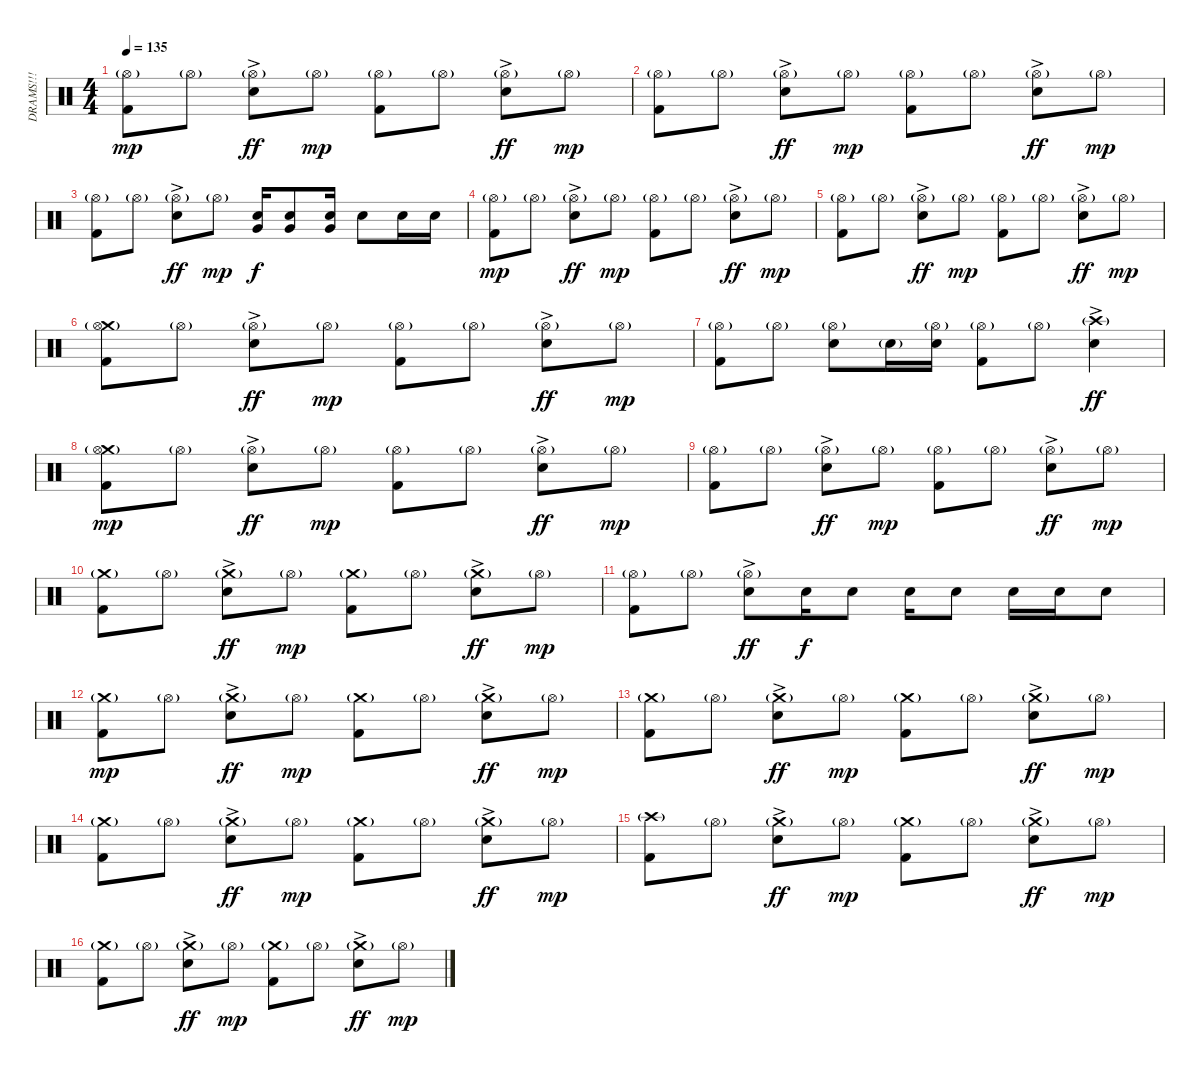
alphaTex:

\track ("DRAMS!!!" "DRAMS!!!") {instrument percussion}
\staff {score}
\articulation defaults
\ts (4 4)
\tempo 135
\clef neutral
\ks c
("Hi-Hat (open)"{g} "Kick (hit) 2").8{dy mp} "Hi-Hat (open)"{g}.8 ("Hi-Hat (open)"{g} "Snare (hit) 2"{ac}).8{dy ff} "Hi-Hat (open)"{g}.8{dy mp} ("Hi-Hat (open)"{g} "Kick (hit) 2").8 "Hi-Hat (open)"{g}.8 ("Hi-Hat (open)"{g} "Snare (hit) 2"{ac}).8{dy ff} "Hi-Hat (open)"{g}.8{dy mp} |
("Hi-Hat (open)"{g} "Kick (hit) 2").8 "Hi-Hat (open)"{g}.8 ("Hi-Hat (open)"{g} "Snare (hit) 2"{ac}).8{dy ff} "Hi-Hat (open)"{g}.8{dy mp} ("Hi-Hat (open)"{g} "Kick (hit) 2").8 "Hi-Hat (open)"{g}.8 ("Hi-Hat (open)"{g} "Snare (hit) 2"{ac}).8{dy ff} "Hi-Hat (open)"{g}.8{dy mp} |
("Hi-Hat (open)"{g} "Kick (hit) 2").8 "Hi-Hat (open)"{g}.8 ("Hi-Hat (open)"{g} "Snare (hit) 2"{ac}).8{dy ff} "Hi-Hat (open)"{g}.8{dy mp} ("Very Low Tom (hit)" "Snare (hit) 2").16{dy f} ("Very Low Tom (hit)" "Snare (hit) 2").8 ("Very Low Tom (hit)" "Snare (hit) 2").16 "Snare (hit) 2".8 "Snare (hit) 2".16 "Snare (hit) 2".16 |
("Hi-Hat (open)"{g} "Kick (hit) 2").8{dy mp} "Hi-Hat (open)"{g}.8 ("Hi-Hat (open)"{g} "Snare (hit) 2"{ac}).8{dy ff} "Hi-Hat (open)"{g}.8{dy mp} ("Hi-Hat (open)"{g} "Kick (hit) 2").8 "Hi-Hat (open)"{g}.8 ("Hi-Hat (open)"{g} "Snare (hit) 2"{ac}).8{dy ff} "Hi-Hat (open)"{g}.8{dy mp} |
("Hi-Hat (open)"{g} "Kick (hit) 2").8 "Hi-Hat (open)"{g}.8 ("Hi-Hat (open)"{g} "Snare (hit) 2"{ac}).8{dy ff} "Hi-Hat (open)"{g}.8{dy mp} ("Hi-Hat (open)"{g} "Kick (hit) 2").8 "Hi-Hat (open)"{g}.8 ("Hi-Hat (open)"{g} "Snare (hit) 2"{ac}).8{dy ff} "Hi-Hat (open)"{g}.8{dy mp} |
("Crash medium (hit)"{g} "Hi-Hat (open)"{g} "Kick (hit) 2").8 "Hi-Hat (open)"{g}.8 ("Hi-Hat (open)"{g} "Snare (hit) 2"{ac}).8{dy ff} "Hi-Hat (open)"{g}.8{dy mp} ("Hi-Hat (open)"{g} "Kick (hit) 2").8 "Hi-Hat (open)"{g}.8 ("Hi-Hat (open)"{g} "Snare (hit) 2"{ac}).8{dy ff} "Hi-Hat (open)"{g}.8{dy mp} |
("Hi-Hat (open)"{g} "Kick (hit) 2").8 "Hi-Hat (open)"{g}.8 ("Hi-Hat (open)"{g} "Snare (hit) 2").8 "Snare (hit) 2"{g}.16 ("Hi-Hat (open)"{g} "Snare (hit) 2").16 ("Hi-Hat (open)"{g} "Kick (hit) 2").8 "Hi-Hat (open)"{g}.8 ("Crash high (hit)"{g} "Snare (hit) 2"{ac}).4{dy ff} |
("Crash medium (hit)"{g} "Hi-Hat (open)"{g} "Kick (hit) 2").8{dy mp} "Hi-Hat (open)"{g}.8 ("Hi-Hat (open)"{g} "Snare (hit) 2"{ac}).8{dy ff} "Hi-Hat (open)"{g}.8{dy mp} ("Hi-Hat (open)"{g} "Kick (hit) 2").8 "Hi-Hat (open)"{g}.8 ("Hi-Hat (open)"{g} "Snare (hit) 2"{ac}).8{dy ff} "Hi-Hat (open)"{g}.8{dy mp} |
("Hi-Hat (open)"{g} "Kick (hit) 2").8 "Hi-Hat (open)"{g}.8 ("Hi-Hat (open)"{g} "Snare (hit) 2"{ac}).8{dy ff} "Hi-Hat (open)"{g}.8{dy mp} ("Hi-Hat (open)"{g} "Kick (hit) 2").8 "Hi-Hat (open)"{g}.8 ("Hi-Hat (open)"{g} "Snare (hit) 2"{ac}).8{dy ff} "Hi-Hat (open)"{g}.8{dy mp} |
("Crash medium (hit)"{g} "Kick (hit) 2").8 "Hi-Hat (open)"{g}.8 ("Crash medium (hit)"{g} "Snare (hit) 2"{ac}).8{dy ff} "Hi-Hat (open)"{g}.8{dy mp} ("Crash medium (hit)"{g} "Kick (hit) 2").8 "Hi-Hat (open)"{g}.8 ("Crash medium (hit)"{g} "Snare (hit) 2"{ac}).8{dy ff} "Hi-Hat (open)"{g}.8{dy mp} |
("Hi-Hat (open)"{g} "Kick (hit) 2").8 "Hi-Hat (open)"{g}.8 ("Hi-Hat (open)"{g} "Snare (hit) 2"{ac}).8{dy ff} "Snare (hit) 2".16{dy f} "Snare (hit) 2".8 "Snare (hit) 2".16 "Snare (hit) 2".8 "Snare (hit) 2".16 "Snare (hit) 2".16 "Snare (hit) 2".8 |
("Crash medium (hit)"{g} "Kick (hit) 2").8{dy mp} "Hi-Hat (open)"{g}.8 ("Crash medium (hit)"{g} "Snare (hit) 2"{ac}).8{dy ff} "Hi-Hat (open)"{g}.8{dy mp} ("Crash medium (hit)"{g} "Kick (hit) 2").8 "Hi-Hat (open)"{g}.8 ("Crash medium (hit)"{g} "Snare (hit) 2"{ac}).8{dy ff} "Hi-Hat (open)"{g}.8{dy mp} |
("Crash medium (hit)"{g} "Kick (hit) 2").8 "Hi-Hat (open)"{g}.8 ("Crash medium (hit)"{g} "Snare (hit) 2"{ac}).8{dy ff} "Hi-Hat (open)"{g}.8{dy mp} ("Crash medium (hit)"{g} "Kick (hit) 2").8 "Hi-Hat (open)"{g}.8 ("Crash medium (hit)"{g} "Snare (hit) 2"{ac}).8{dy ff} "Hi-Hat (open)"{g}.8{dy mp} |
("Crash medium (hit)"{g} "Kick (hit) 2").8 "Hi-Hat (open)"{g}.8 ("Crash medium (hit)"{g} "Snare (hit) 2"{ac}).8{dy ff} "Hi-Hat (open)"{g}.8{dy mp} ("Crash medium (hit)"{g} "Kick (hit) 2").8 "Hi-Hat (open)"{g}.8 ("Crash medium (hit)"{g} "Snare (hit) 2"{ac}).8{dy ff} "Hi-Hat (open)"{g}.8{dy mp} |
("Crash high (hit)"{g} "Kick (hit) 2").8 "Hi-Hat (open)"{g}.8 ("Crash medium (hit)"{g} "Snare (hit) 2"{ac}).8{dy ff} "Hi-Hat (open)"{g}.8{dy mp} ("Crash medium (hit)"{g} "Kick (hit) 2").8 "Hi-Hat (open)"{g}.8 ("Crash medium (hit)"{g} "Snare (hit) 2"{ac}).8{dy ff} "Hi-Hat (open)"{g}.8{dy mp} |
("Crash medium (hit)"{g} "Kick (hit) 2").8 "Hi-Hat (open)"{g}.8 ("Crash medium (hit)"{g} "Snare (hit) 2"{ac}).8{dy ff} "Hi-Hat (open)"{g}.8{dy mp} ("Crash medium (hit)"{g} "Kick (hit) 2").8 "Hi-Hat (open)"{g}.8 ("Crash medium (hit)"{g} "Snare (hit) 2"{ac}).8{dy ff} "Hi-Hat (open)"{g}.8{dy mp}
